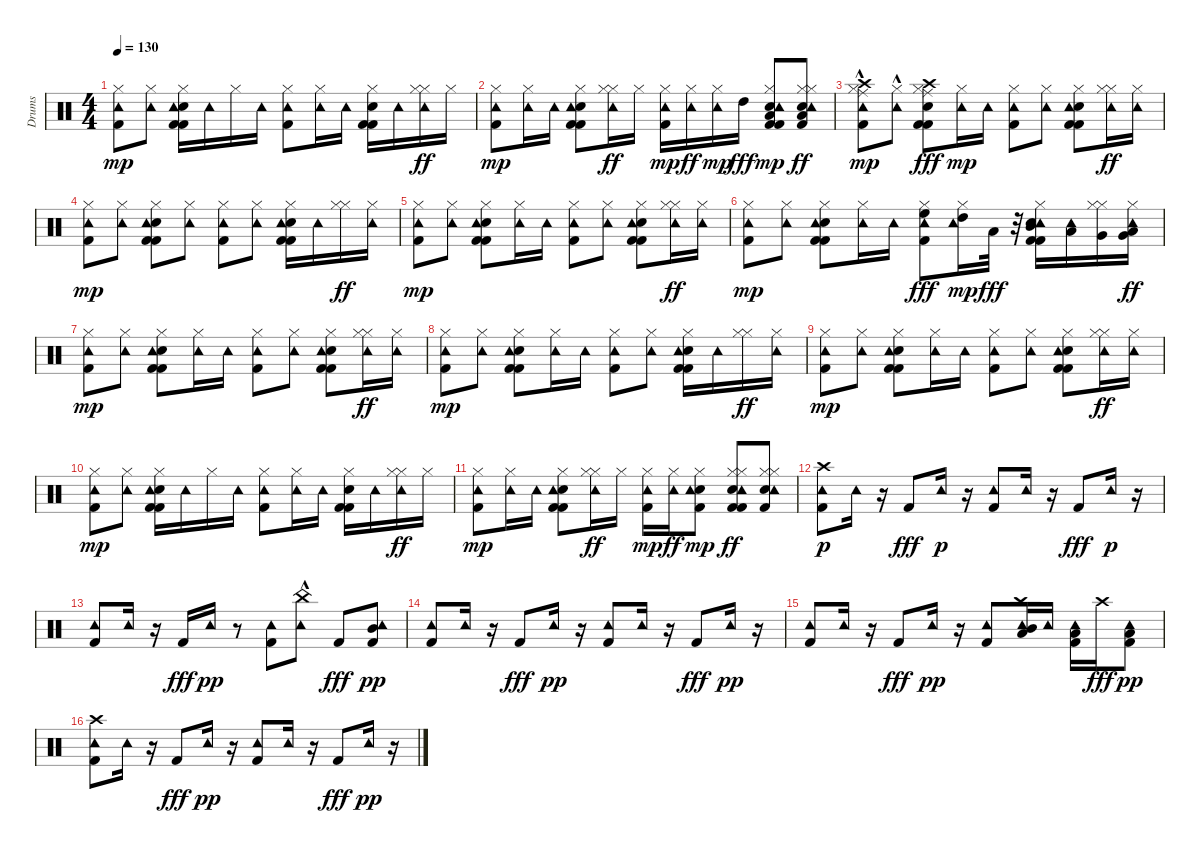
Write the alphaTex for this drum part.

\track ("Drums" "Drums") {instrument percussion}
\staff {score}
\articulation defaults
\ts (4 4)
\tempo 130
\clef neutral
\ks c
("Kick (hit) 2" "Tambourine (hit)" "Hi-Hat (closed)").8{dy mp} ("Hi-Hat (closed)" "Tambourine (hit)").8 ("Kick (hit) 2" "Snare (hit) 2" "Kick (hit) 2" "Hi-Hat (closed)" "Tambourine (hit)").16 "Tambourine (hit)".16 "Hi-Hat (closed)".16 "Tambourine (hit)".16 ("Kick (hit) 2" "Hi-Hat (closed)" "Tambourine (hit)").8 ("Hi-Hat (closed)" "Tambourine (hit)").16 "Tambourine (hit)".16 ("Kick (hit) 2" "Snare (hit) 2" "Kick (hit) 2" "Hi-Hat (closed)").16 "Tambourine (hit)".16 ("Hi-Hat (closed)" "Tambourine (hit)" "Hi-Hat (closed)").16{dy ff} "Hi-Hat (closed)".16 |
("Kick (hit) 2" "Hi-Hat (closed)" "Tambourine (hit)").8{dy mp} ("Hi-Hat (closed)" "Tambourine (hit)").16 "Tambourine (hit)".16 ("Kick (hit) 2" "Snare (hit) 2" "Kick (hit) 2" "Hi-Hat (closed)" "Tambourine (hit)").8 ("Hi-Hat (closed)" "Tambourine (hit)" "Hi-Hat (closed)").16{dy ff} "Hi-Hat (closed)".16 ("Kick (hit) 2" "Hi-Hat (closed)" "Tambourine (hit)").16{dy mp} ("Tambourine (hit)" "Hi-Hat (closed)").16{dy ff} ("Tambourine (hit)" "Hi-Hat (closed)").16{dy mp} "High Tom (hit)".16{dy fff} ("Kick (hit) 2" "Snare (hit) 2" "Kick (hit) 2" "Hi-Hat (closed)" "Low Tom (hit)" "Tambourine (hit)").8{dy mp} ("Snare (hit) 2" "Kick (hit) 2" "Hi-Hat (closed)" "Low Floor Tom (hit)" "Tambourine (hit)" "Hi-Hat (closed)").8{dy ff} |
("Kick (hit) 2" "Hi-Hat (closed)" "Ride (middle)"{hac} "Crash high (hit)"{hac} "Tambourine (hit)").8{dy mp} ("Hi-Hat (closed)" "Tambourine (hit)"{hac}).8 ("Kick (hit) 2" "Kick (hit) 2" "Snare (hit) 2" "Hi-Hat (closed)" "Ride (middle)" "Crash high (hit)").8{dy fff} ("Hi-Hat (closed)" "Tambourine (hit)").16{dy mp} "Tambourine (hit)".16 ("Kick (hit) 2" "Hi-Hat (closed)" "Tambourine (hit)").8 ("Hi-Hat (closed)" "Tambourine (hit)").8 ("Kick (hit) 2" "Snare (hit) 2" "Kick (hit) 2" "Hi-Hat (closed)" "Tambourine (hit)").8 ("Hi-Hat (closed)" "Tambourine (hit)" "Hi-Hat (closed)").16{dy ff} ("Tambourine (hit)" "Hi-Hat (closed)").16 |
("Kick (hit) 2" "Hi-Hat (closed)" "Tambourine (hit)").8{dy mp} ("Hi-Hat (closed)" "Tambourine (hit)").8 ("Kick (hit) 2" "Snare (hit) 2" "Kick (hit) 2" "Hi-Hat (closed)" "Tambourine (hit)").8 ("Hi-Hat (closed)" "Tambourine (hit)").8 ("Kick (hit) 2" "Hi-Hat (closed)" "Tambourine (hit)").8 ("Hi-Hat (closed)" "Tambourine (hit)").8 ("Kick (hit) 2" "Kick (hit) 2" "Snare (hit) 2" "Hi-Hat (closed)" "Tambourine (hit)").16 "Tambourine (hit)".16 ("Hi-Hat (closed)" "Hi-Hat (closed)").16{dy ff} ("Tambourine (hit)" "Hi-Hat (closed)").16 |
("Kick (hit) 2" "Hi-Hat (closed)" "Tambourine (hit)").8{dy mp} ("Tambourine (hit)" "Hi-Hat (closed)").8 ("Kick (hit) 2" "Kick (hit) 2" "Snare (hit) 2" "Hi-Hat (closed)" "Tambourine (hit)").8 ("Hi-Hat (closed)" "Tambourine (hit)").16 "Tambourine (hit)".16 ("Kick (hit) 2" "Hi-Hat (closed)" "Tambourine (hit)").8 ("Hi-Hat (closed)" "Tambourine (hit)").8 ("Kick (hit) 2" "Kick (hit) 2" "Snare (hit) 2" "Hi-Hat (closed)" "Tambourine (hit)").8 ("Hi-Hat (closed)" "Tambourine (hit)" "Hi-Hat (closed)").16{dy ff} ("Tambourine (hit)" "Hi-Hat (closed)").16 |
("Kick (hit) 2" "Hi-Hat (closed)" "Tambourine (hit)").8{dy mp} ("Hi-Hat (closed)" "Tambourine (hit)").8 ("Kick (hit) 2" "Snare (hit) 2" "Kick (hit) 2" "Hi-Hat (closed)" "Tambourine (hit)").8 ("Hi-Hat (closed)" "Tambourine (hit)").16 "Tambourine (hit)".16 ("Kick (hit) 2" "Hi-Hat (closed)" "Tambourine (hit)" "High Floor Tom (hit)").8{dy fff} ("Hi-Hat (closed)" "High Tom (hit)" "Tambourine (hit)").16{dy mp} "Low Tom (hit)".32{dy fff} r.32 ("Tambourine (hit)" "Kick (hit) 2" "Snare (hit) 2" "Kick (hit) 2" "Hi-Hat (closed)" "Mid Tom (hit)").16 ("Tambourine (hit)" "Low Tom (hit)").16 ("Hi-Hat (closed)" "Hi-Hat (closed)" "Very Low Tom (hit)").16 ("Very Low Tom (hit)" "Low Floor Tom (hit)" "Tambourine (hit)" "Hi-Hat (closed)").16{dy ff} |
("Kick (hit) 2" "Hi-Hat (closed)" "Tambourine (hit)").8{dy mp} ("Hi-Hat (closed)" "Tambourine (hit)").8 ("Kick (hit) 2" "Snare (hit) 2" "Kick (hit) 2" "Hi-Hat (closed)" "Tambourine (hit)").8 ("Hi-Hat (closed)" "Tambourine (hit)").16 "Tambourine (hit)".16 ("Kick (hit) 2" "Hi-Hat (closed)" "Tambourine (hit)").8 ("Hi-Hat (closed)" "Tambourine (hit)").8 ("Kick (hit) 2" "Snare (hit) 2" "Kick (hit) 2" "Hi-Hat (closed)" "Tambourine (hit)").8 ("Hi-Hat (closed)" "Tambourine (hit)" "Hi-Hat (closed)").16{dy ff} ("Tambourine (hit)" "Hi-Hat (closed)").16 |
("Kick (hit) 2" "Hi-Hat (closed)" "Tambourine (hit)").8{dy mp} ("Hi-Hat (closed)" "Tambourine (hit)").8 ("Kick (hit) 2" "Snare (hit) 2" "Kick (hit) 2" "Hi-Hat (closed)" "Tambourine (hit)").8 ("Hi-Hat (closed)" "Tambourine (hit)").16 "Tambourine (hit)".16 ("Kick (hit) 2" "Hi-Hat (closed)" "Tambourine (hit)").8 ("Hi-Hat (closed)" "Tambourine (hit)").8 ("Kick (hit) 2" "Snare (hit) 2" "Kick (hit) 2" "Hi-Hat (closed)" "Tambourine (hit)").16 "Tambourine (hit)".16 ("Hi-Hat (closed)" "Hi-Hat (closed)").16{dy ff} ("Tambourine (hit)" "Hi-Hat (closed)").16 |
("Kick (hit) 2" "Hi-Hat (closed)" "Tambourine (hit)").8{dy mp} ("Hi-Hat (closed)" "Tambourine (hit)").8 ("Kick (hit) 2" "Snare (hit) 2" "Kick (hit) 2" "Hi-Hat (closed)" "Tambourine (hit)").8 ("Hi-Hat (closed)" "Tambourine (hit)").16 "Tambourine (hit)".16 ("Kick (hit) 2" "Hi-Hat (closed)" "Tambourine (hit)").8 ("Hi-Hat (closed)" "Tambourine (hit)").8 ("Kick (hit) 2" "Snare (hit) 2" "Kick (hit) 2" "Hi-Hat (closed)" "Tambourine (hit)").8 ("Hi-Hat (closed)" "Tambourine (hit)" "Hi-Hat (closed)").16{dy ff} ("Tambourine (hit)" "Hi-Hat (closed)").16 |
("Kick (hit) 2" "Hi-Hat (closed)" "Tambourine (hit)").8{dy mp} ("Hi-Hat (closed)" "Tambourine (hit)").8 ("Kick (hit) 2" "Kick (hit) 2" "Snare (hit) 2" "Hi-Hat (closed)" "Tambourine (hit)").16 "Tambourine (hit)".16 "Hi-Hat (closed)".16 "Tambourine (hit)".16 ("Kick (hit) 2" "Hi-Hat (closed)" "Tambourine (hit)").8 ("Hi-Hat (closed)" "Tambourine (hit)").16 "Tambourine (hit)".16 ("Kick (hit) 2" "Snare (hit) 2" "Kick (hit) 2" "Hi-Hat (closed)").16 "Tambourine (hit)".16 ("Hi-Hat (closed)" "Tambourine (hit)" "Hi-Hat (closed)").16{dy ff} "Hi-Hat (closed)".16 |
("Kick (hit) 2" "Hi-Hat (closed)" "Tambourine (hit)").8{dy mp} ("Hi-Hat (closed)" "Tambourine (hit)").16 "Tambourine (hit)".16 ("Kick (hit) 2" "Snare (hit) 2" "Kick (hit) 2" "Hi-Hat (closed)" "Tambourine (hit)").8 ("Hi-Hat (closed)" "Tambourine (hit)" "Hi-Hat (closed)").16{dy ff} "Hi-Hat (closed)".16 ("Kick (hit) 2" "Hi-Hat (closed)" "Tambourine (hit)").16{dy mp} ("Tambourine (hit)" "Hi-Hat (closed)").16{dy ff} ("Snare (hit) 2" "Kick (hit) 2" "Hi-Hat (closed)" "Tambourine (hit)").8{dy mp} ("Kick (hit) 2" "Kick (hit) 2" "Snare (hit) 2" "Hi-Hat (closed)" "Tambourine (hit)" "Hi-Hat (closed)").8{dy ff} ("Kick (hit) 2" "Snare (hit) 2" "Hi-Hat (closed)" "Tambourine (hit)" "Hi-Hat (closed)").8 |
("Kick (hit) 2" "Crash high (hit)" "Tambourine (hit)").8{dy p} "Tambourine (hit)".16 r.16 "Kick (hit) 2".8{dy fff} "Tambourine (hit)".16{dy p} r.16 ("Kick (hit) 2" "Tambourine (hit)").8 "Tambourine (hit)".16 r.16 "Kick (hit) 2".8{dy fff} "Tambourine (hit)".16{dy p} r.16 |
("Kick (hit) 2" "Tambourine (hit)").8 "Tambourine (hit)".16 r.16 "Kick (hit) 2".16{dy fff} "Tambourine (hit)".16{dy pp} r.8 ("Kick (hit) 2" "Tambourine (hit)").8 ("China (hit)"{hac} "Tambourine (hit)").8 "Kick (hit) 2".8{dy fff} ("Kick (hit) 2" "Mid Tom (hit)" "Tambourine (hit)").8{dy pp} |
("Kick (hit) 2" "Tambourine (hit)").8 "Tambourine (hit)".16 r.16 "Kick (hit) 2".8{dy fff} "Tambourine (hit)".16{dy pp} r.16 ("Kick (hit) 2" "Tambourine (hit)").8 "Tambourine (hit)".16 r.16 "Kick (hit) 2".8{dy fff} "Tambourine (hit)".16{dy pp} r.16 |
("Kick (hit) 2" "Tambourine (hit)").8 "Tambourine (hit)".16 r.16 "Kick (hit) 2".8{dy fff} "Tambourine (hit)".16{dy pp} r.16 ("Kick (hit) 2" "Tambourine (hit)").8 ("Mid Tom (hit)" "Low Tom (hit)" "Crash high (hit)" "Tambourine (hit)").16 "Tambourine (hit)".16 ("Kick (hit) 2" "Low Tom (hit)" "Tambourine (hit)").16 "Crash high (hit)".16{dy fff} ("Kick (hit) 2" "Low Floor Tom (hit)" "Tambourine (hit)").8{dy pp} |
("Kick (hit) 2" "Crash high (hit)" "Tambourine (hit)").8 "Tambourine (hit)".16 r.16 "Kick (hit) 2".8{dy fff} "Tambourine (hit)".16{dy pp} r.16 ("Kick (hit) 2" "Tambourine (hit)").8 "Tambourine (hit)".16 r.16 "Kick (hit) 2".8{dy fff} "Tambourine (hit)".16{dy pp} r.16
